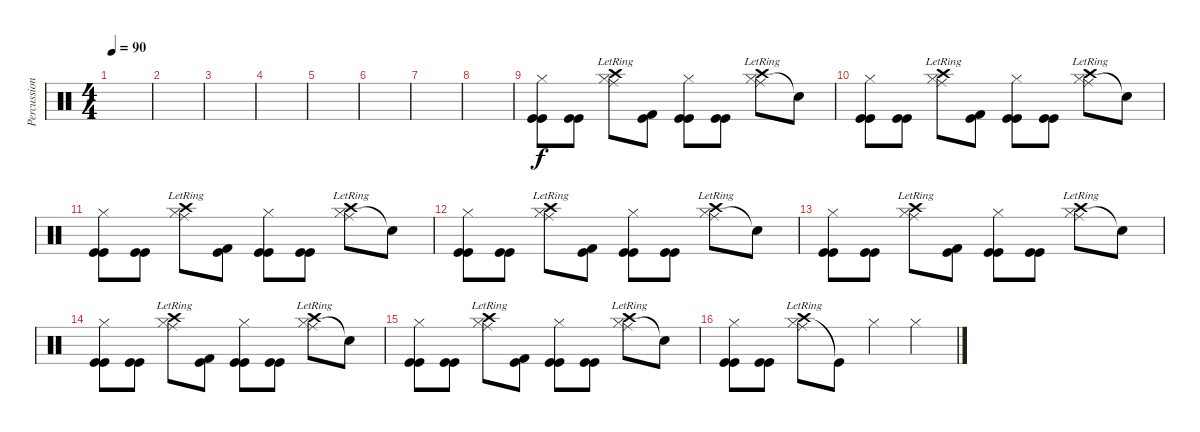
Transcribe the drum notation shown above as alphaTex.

\track ("Percussions" "Percussion") {instrument percussion}
\staff {score}
\articulation defaults
\ts (4 4)
\tempo 90
\clef neutral
\ks c
|
|
|
|
|
|
|
|
("Hi-Hat (closed)" "Kick (hit)" "Kick (hit)").8 ("Kick (hit)" "Kick (hit)").8 ("Hi-Hat (closed)" "Crash high (hit)"{lr} "Ride (middle)").8 ("Kick (hit) 2" "Kick (hit)").8 ("Hi-Hat (closed)" "Kick (hit)" "Kick (hit)").8 ("Kick (hit)" "Kick (hit)").8 ("Hi-Hat (closed)" "Crash high (hit)"{lr} "Ride (middle)").8 "Snare (hit)"{t}.8 |
("Hi-Hat (closed)" "Kick (hit)" "Kick (hit)").8 ("Kick (hit)" "Kick (hit)").8 ("Hi-Hat (closed)" "Crash high (hit)"{lr} "Ride (middle)").8 ("Kick (hit) 2" "Kick (hit)").8 ("Hi-Hat (closed)" "Kick (hit)" "Kick (hit)").8 ("Kick (hit)" "Kick (hit)").8 ("Hi-Hat (closed)" "Crash high (hit)"{lr} "Ride (middle)").8 "Snare (hit)"{t}.8 |
("Hi-Hat (closed)" "Kick (hit)" "Kick (hit)").8 ("Kick (hit)" "Kick (hit)").8 ("Hi-Hat (closed)" "Crash high (hit)"{lr} "Ride (middle)").8 ("Kick (hit) 2" "Kick (hit)").8 ("Hi-Hat (closed)" "Kick (hit)" "Kick (hit)").8 ("Kick (hit)" "Kick (hit)").8 ("Hi-Hat (closed)" "Crash high (hit)"{lr} "Ride (middle)").8 "Snare (hit)"{t}.8 |
("Hi-Hat (closed)" "Kick (hit)" "Kick (hit)").8 ("Kick (hit)" "Kick (hit)").8 ("Hi-Hat (closed)" "Crash high (hit)"{lr} "Ride (middle)").8 ("Kick (hit) 2" "Kick (hit)").8 ("Hi-Hat (closed)" "Kick (hit)" "Kick (hit)").8 ("Kick (hit)" "Kick (hit)").8 ("Hi-Hat (closed)" "Crash high (hit)"{lr} "Ride (middle)").8 "Snare (hit)"{t}.8 |
("Hi-Hat (closed)" "Kick (hit)" "Kick (hit)").8 ("Kick (hit)" "Kick (hit)").8 ("Hi-Hat (closed)" "Crash high (hit)"{lr} "Ride (middle)").8 ("Kick (hit) 2" "Kick (hit)").8 ("Hi-Hat (closed)" "Kick (hit)" "Kick (hit)").8 ("Kick (hit)" "Kick (hit)").8 ("Hi-Hat (closed)" "Crash high (hit)"{lr} "Ride (middle)").8 "Snare (hit)"{t}.8 |
("Hi-Hat (closed)" "Kick (hit)" "Kick (hit)").8 ("Kick (hit)" "Kick (hit)").8 ("Hi-Hat (closed)" "Crash high (hit)"{lr} "Ride (middle)").8 ("Kick (hit) 2" "Kick (hit)").8 ("Hi-Hat (closed)" "Kick (hit)" "Kick (hit)").8 ("Kick (hit)" "Kick (hit)").8 ("Hi-Hat (closed)" "Crash high (hit)"{lr} "Ride (middle)").8 "Snare (hit)"{t}.8 |
("Hi-Hat (closed)" "Kick (hit)" "Kick (hit)").8 ("Kick (hit)" "Kick (hit)").8 ("Hi-Hat (closed)" "Crash high (hit)"{lr} "Ride (middle)").8 ("Kick (hit) 2" "Kick (hit)").8 ("Hi-Hat (closed)" "Kick (hit)" "Kick (hit)").8 ("Kick (hit)" "Kick (hit)").8 ("Hi-Hat (closed)" "Crash high (hit)"{lr} "Ride (middle)").8 "Snare (hit)"{t}.8 |
("Hi-Hat (closed)" "Kick (hit)" "Kick (hit)").8 ("Kick (hit)" "Kick (hit)").8 ("Hi-Hat (closed)" "Crash high (hit)"{lr} "Ride (middle)").8 "Kick (hit)"{t}.8 "Hi-Hat (closed)".4 "Hi-Hat (closed)".4
